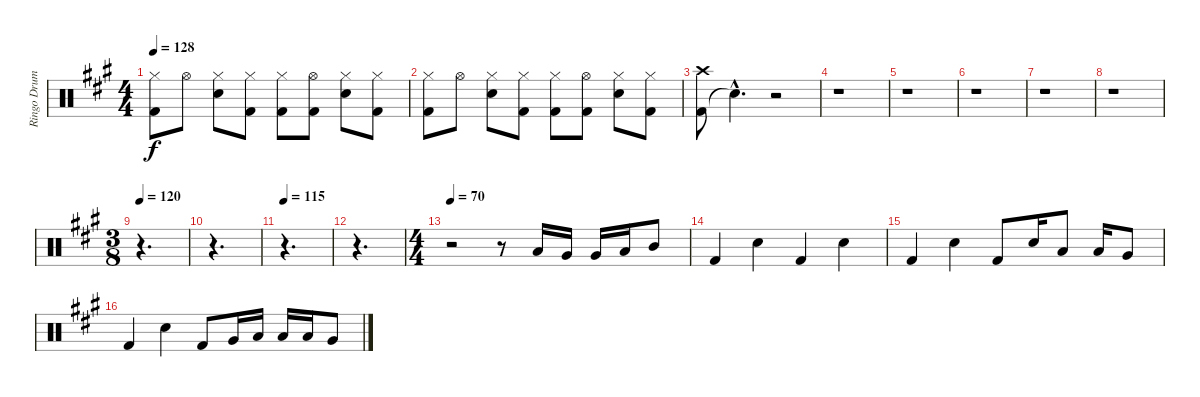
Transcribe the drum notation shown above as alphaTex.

\track ("Ringo Drums" "Ringo Drum") {instrument percussion}
\staff {score}
\articulation defaults
\ts (4 4)
\tempo 128
\clef neutral
\ks a
("Kick (hit) 2" "Hi-Hat (closed)").8{dy f} "Hi-Hat (open)".8 ("Snare (hit) 2" "Hi-Hat (closed)").8 ("Kick (hit) 2" "Hi-Hat (closed)").8 ("Kick (hit) 2" "Hi-Hat (closed)").8 ("Kick (hit) 2" "Hi-Hat (open)").8 ("Snare (hit) 2" "Hi-Hat (closed)").8 ("Kick (hit) 2" "Hi-Hat (closed)").8 |
("Kick (hit) 2" "Hi-Hat (closed)").8 "Hi-Hat (open)".8 ("Snare (hit) 2" "Hi-Hat (closed)").8 ("Kick (hit) 2" "Hi-Hat (closed)").8 ("Kick (hit) 2" "Hi-Hat (closed)").8 ("Kick (hit) 2" "Hi-Hat (open)").8 ("Snare (hit) 2" "Hi-Hat (closed)").8 ("Kick (hit) 2" "Hi-Hat (closed)").8 |
("Kick (hit) 2" "Crash high (hit)").8 "Snare (hit)"{hac t}.4{d} r.2 |
r.1 |
r.1 |
r.1 |
r.1 |
r.1 |
\ts (3 8)
\tempo 120
r.4{d} |
r.4{d} |
\tempo 115
r.4{d} |
r.4{d} |
\ts (4 4)
\tempo 70
r.2 r.8 "Low Tom (hit)".16 "Very Low Tom (hit)".16 "Very Low Tom (hit)".16 "Low Floor Tom (hit)".16 "Mid Tom (hit)".8 |
"Kick (hit) 2".4 "Snare (hit) 2".4 "Kick (hit) 2".4 "Snare (hit) 2".4 |
"Kick (hit) 2".4 "Snare (hit) 2".4 "Kick (hit) 2".8 "Snare (hit) 2".16 "Low Floor Tom (hit)".8 "Low Tom (hit)".16 "Very Low Tom (hit)".8 |
"Kick (hit) 2".4 "Snare (hit) 2".4 "Kick (hit) 2".8 "Very Low Tom (hit)".16 "Low Floor Tom (hit)".16 "Low Tom (hit)".16 "Low Tom (hit)".16 "Very Low Tom (hit)".8
